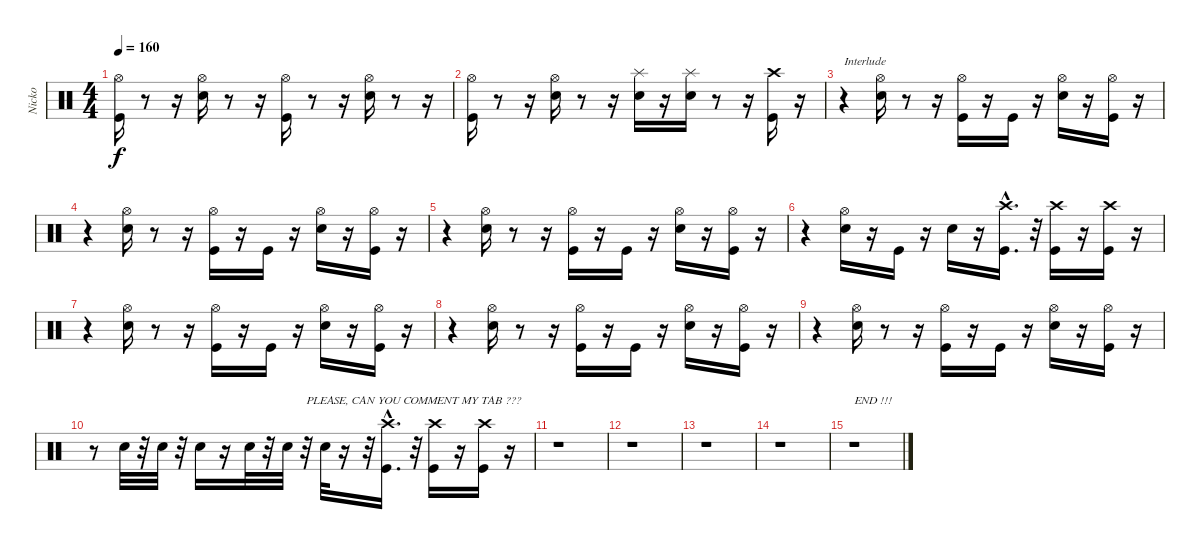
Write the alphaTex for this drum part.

\track ("Nicko" "Nicko") {instrument percussion}
\staff {score}
\articulation defaults
\ts (4 4)
\tempo 160
\clef neutral
\ks c
("Kick (hit)" "Hi-Hat (open)").16{dy f} r.8 r.16 ("Hi-Hat (open)" "Snare (hit) 2").16 r.8 r.16 ("Kick (hit)" "Hi-Hat (open)").16 r.8 r.16 ("Snare (hit) 2" "Hi-Hat (open)").16 r.8 r.16 |
("Kick (hit)" "Hi-Hat (open)").16 r.8 r.16 ("Hi-Hat (open)" "Snare (hit) 2").16 r.8 r.16 ("Snare (hit) 2" "Splash (hit)").16 r.16 ("Snare (hit) 2" "Splash (hit)").16 r.8 r.16 ("Kick (hit)" "Crash high (hit)").16 r.16 |
r.4{txt "Interlude"} ("Snare (hit) 2" "Hi-Hat (open)").16 r.8 r.16 ("Hi-Hat (open)" "Kick (hit)").16 r.16 "Kick (hit)".16 r.16 ("Snare (hit) 2" "Hi-Hat (open)").16 r.16 ("Kick (hit)" "Hi-Hat (open)").16 r.16 |
r.4 ("Snare (hit) 2" "Hi-Hat (open)").16 r.8 r.16 ("Hi-Hat (open)" "Kick (hit)").16 r.16 "Kick (hit)".16 r.16 ("Snare (hit) 2" "Hi-Hat (open)").16 r.16 ("Kick (hit)" "Hi-Hat (open)").16 r.16 |
r.4 ("Snare (hit) 2" "Hi-Hat (open)").16 r.8 r.16 ("Hi-Hat (open)" "Kick (hit)").16 r.16 "Kick (hit)".16 r.16 ("Snare (hit) 2" "Hi-Hat (open)").16 r.16 ("Kick (hit)" "Hi-Hat (open)").16 r.16 |
r.4 ("Hi-Hat (open)" "Snare (hit) 2").16 r.16 "Kick (hit)".16 r.16 "Snare (hit) 2".16 r.16 ("Kick (hit)"{hac} "Crash high (hit)"{hac}).16{d} r.32 ("Crash high (hit)" "Kick (hit)").16 r.16 ("Kick (hit)" "Crash high (hit)").16 r.16 |
r.4 ("Snare (hit) 2" "Hi-Hat (open)").16 r.8 r.16 ("Hi-Hat (open)" "Kick (hit)").16 r.16 "Kick (hit)".16 r.16 ("Snare (hit) 2" "Hi-Hat (open)").16 r.16 ("Kick (hit)" "Hi-Hat (open)").16 r.16 |
r.4 ("Snare (hit) 2" "Hi-Hat (open)").16 r.8 r.16 ("Hi-Hat (open)" "Kick (hit)").16 r.16 "Kick (hit)".16 r.16 ("Snare (hit) 2" "Hi-Hat (open)").16 r.16 ("Kick (hit)" "Hi-Hat (open)").16 r.16 |
r.4 ("Snare (hit) 2" "Hi-Hat (open)").16 r.8 r.16 ("Hi-Hat (open)" "Kick (hit)").16 r.16 "Kick (hit)".16 r.16 ("Snare (hit) 2" "Hi-Hat (open)").16 r.16 ("Kick (hit)" "Hi-Hat (open)").16 r.16 |
r.8 "Snare (hit) 2".32 r.32 "Snare (hit) 2".32 r.32 "Snare (hit) 2".16 r.16 "Snare (hit) 2".32 r.32 "Snare (hit) 2".32 r.32{txt "PLEASE, CAN YOU COMMENT MY TAB ???"} "Snare (hit) 2".32 r.16 r.32 ("Crash high (hit)"{hac} "Kick (hit)"{hac}).16{d} r.32 ("Crash high (hit)" "Kick (hit)").16 r.16 ("Kick (hit)" "Crash high (hit)").16 r.16 |
r.1 |
r.1 |
r.1 |
r.1 |
r.1{txt "END !!!"}
